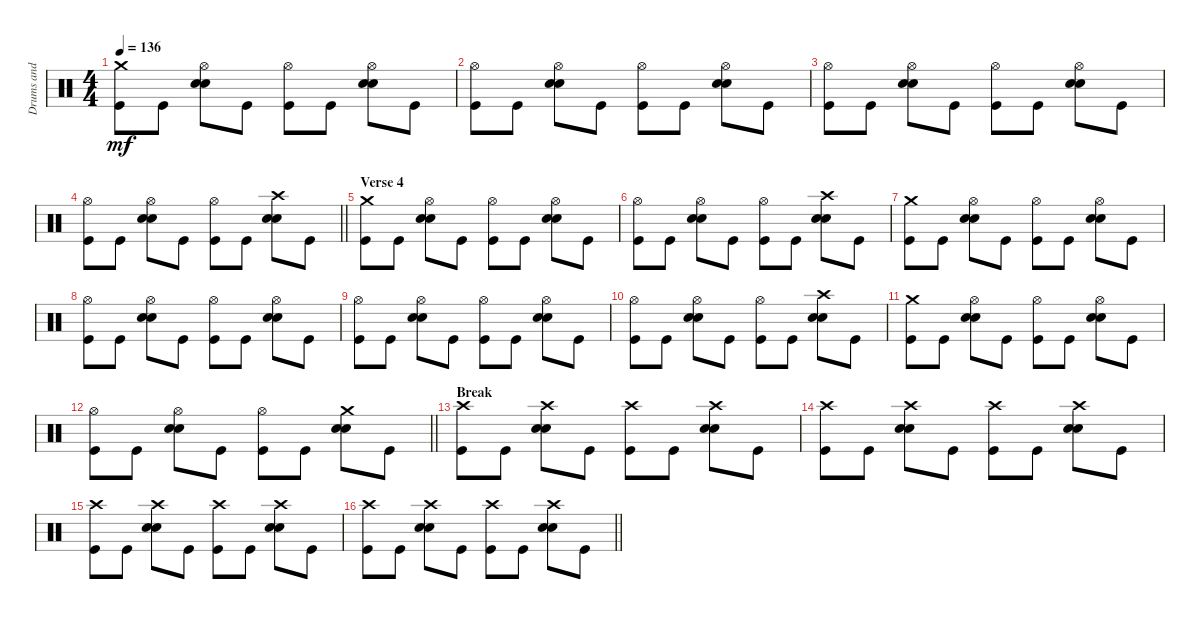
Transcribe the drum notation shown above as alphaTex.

\track ("Drums and Percussions" "Drums and ") {instrument percussion}
\staff {score}
\articulation defaults
\ts (4 4)
\tempo 136
\clef neutral
\ks c
("Crash medium (hit)" "Kick (hit)").8{dy mf} "Kick (hit)".8 ("Hi-Hat (open)" "Electric Snare (hit)" "Electric Snare (hit)").8 "Kick (hit)".8 ("Hi-Hat (open)" "Kick (hit)").8 "Kick (hit)".8 ("Hi-Hat (open)" "Electric Snare (hit)" "Electric Snare (hit)").8 "Kick (hit)".8 |
("Hi-Hat (open)" "Kick (hit)").8 "Kick (hit)".8 ("Hi-Hat (open)" "Electric Snare (hit)" "Electric Snare (hit)").8 "Kick (hit)".8 ("Hi-Hat (open)" "Kick (hit)").8 "Kick (hit)".8 ("Hi-Hat (open)" "Electric Snare (hit)" "Electric Snare (hit)").8 "Kick (hit)".8 |
("Hi-Hat (open)" "Kick (hit)").8 "Kick (hit)".8 ("Hi-Hat (open)" "Electric Snare (hit)" "Electric Snare (hit)").8 "Kick (hit)".8 ("Hi-Hat (open)" "Kick (hit)").8 "Kick (hit)".8 ("Hi-Hat (open)" "Electric Snare (hit)" "Electric Snare (hit)").8 "Kick (hit)".8 |
\barLineRight lightlight
("Hi-Hat (open)" "Kick (hit)").8 "Kick (hit)".8 ("Hi-Hat (open)" "Electric Snare (hit)" "Electric Snare (hit)").8 "Kick (hit)".8 ("Hi-Hat (open)" "Kick (hit)").8 "Kick (hit)".8 ("Crash high (hit)" "Electric Snare (hit)" "Electric Snare (hit)").8 "Kick (hit)".8 |
\section ("" "Verse 4")
("Crash medium (hit)" "Kick (hit)").8 "Kick (hit)".8 ("Hi-Hat (open)" "Electric Snare (hit)" "Electric Snare (hit)").8 "Kick (hit)".8 ("Hi-Hat (open)" "Kick (hit)").8 "Kick (hit)".8 ("Hi-Hat (open)" "Electric Snare (hit)" "Electric Snare (hit)").8 "Kick (hit)".8 |
("Hi-Hat (open)" "Kick (hit)").8 "Kick (hit)".8 ("Hi-Hat (open)" "Electric Snare (hit)" "Electric Snare (hit)").8 "Kick (hit)".8 ("Hi-Hat (open)" "Kick (hit)").8 "Kick (hit)".8 ("Crash high (hit)" "Electric Snare (hit)" "Electric Snare (hit)").8 "Kick (hit)".8 |
("Crash medium (hit)" "Kick (hit)").8 "Kick (hit)".8 ("Hi-Hat (open)" "Electric Snare (hit)" "Electric Snare (hit)").8 "Kick (hit)".8 ("Hi-Hat (open)" "Kick (hit)").8 "Kick (hit)".8 ("Hi-Hat (open)" "Electric Snare (hit)" "Electric Snare (hit)").8 "Kick (hit)".8 |
("Hi-Hat (open)" "Kick (hit)").8 "Kick (hit)".8 ("Hi-Hat (open)" "Electric Snare (hit)" "Electric Snare (hit)").8 "Kick (hit)".8 ("Hi-Hat (open)" "Kick (hit)").8 "Kick (hit)".8 ("Hi-Hat (open)" "Electric Snare (hit)" "Electric Snare (hit)").8 "Kick (hit)".8 |
("Hi-Hat (open)" "Kick (hit)").8 "Kick (hit)".8 ("Hi-Hat (open)" "Electric Snare (hit)" "Electric Snare (hit)").8 "Kick (hit)".8 ("Hi-Hat (open)" "Kick (hit)").8 "Kick (hit)".8 ("Hi-Hat (open)" "Electric Snare (hit)" "Electric Snare (hit)").8 "Kick (hit)".8 |
("Hi-Hat (open)" "Kick (hit)").8 "Kick (hit)".8 ("Hi-Hat (open)" "Electric Snare (hit)" "Electric Snare (hit)").8 "Kick (hit)".8 ("Hi-Hat (open)" "Kick (hit)").8 "Kick (hit)".8 ("Crash high (hit)" "Electric Snare (hit)" "Electric Snare (hit)").8 "Kick (hit)".8 |
("Crash medium (hit)" "Kick (hit)").8 "Kick (hit)".8 ("Hi-Hat (open)" "Electric Snare (hit)" "Electric Snare (hit)").8 "Kick (hit)".8 ("Hi-Hat (open)" "Kick (hit)").8 "Kick (hit)".8 ("Hi-Hat (open)" "Electric Snare (hit)" "Electric Snare (hit)").8 "Kick (hit)".8 |
\barLineRight lightlight
("Hi-Hat (open)" "Kick (hit)").8 "Kick (hit)".8 ("Hi-Hat (open)" "Electric Snare (hit)" "Electric Snare (hit)").8 "Kick (hit)".8 ("Hi-Hat (open)" "Kick (hit)").8 "Kick (hit)".8 ("Crash medium (hit)" "Electric Snare (hit)" "Electric Snare (hit)").8 "Kick (hit)".8 |
\section ("" "Break")
("Crash high (hit)" "Kick (hit)").8 "Kick (hit)".8 ("Crash high (hit)" "Electric Snare (hit)" "Electric Snare (hit)").8 "Kick (hit)".8 ("Crash high (hit)" "Kick (hit)").8 "Kick (hit)".8 ("Crash high (hit)" "Electric Snare (hit)" "Electric Snare (hit)").8 "Kick (hit)".8 |
("Crash high (hit)" "Kick (hit)").8 "Kick (hit)".8 ("Crash high (hit)" "Electric Snare (hit)" "Electric Snare (hit)").8 "Kick (hit)".8 ("Crash high (hit)" "Kick (hit)").8 "Kick (hit)".8 ("Crash high (hit)" "Electric Snare (hit)" "Electric Snare (hit)").8 "Kick (hit)".8 |
("Crash high (hit)" "Kick (hit)").8 "Kick (hit)".8 ("Crash high (hit)" "Electric Snare (hit)" "Electric Snare (hit)").8 "Kick (hit)".8 ("Crash high (hit)" "Kick (hit)").8 "Kick (hit)".8 ("Crash high (hit)" "Electric Snare (hit)" "Electric Snare (hit)").8 "Kick (hit)".8 |
\barLineRight lightlight
("Crash high (hit)" "Kick (hit)").8 "Kick (hit)".8 ("Crash high (hit)" "Electric Snare (hit)" "Electric Snare (hit)").8 "Kick (hit)".8 ("Crash high (hit)" "Kick (hit)").8 "Kick (hit)".8 ("Crash high (hit)" "Electric Snare (hit)" "Electric Snare (hit)").8 "Kick (hit)".8
